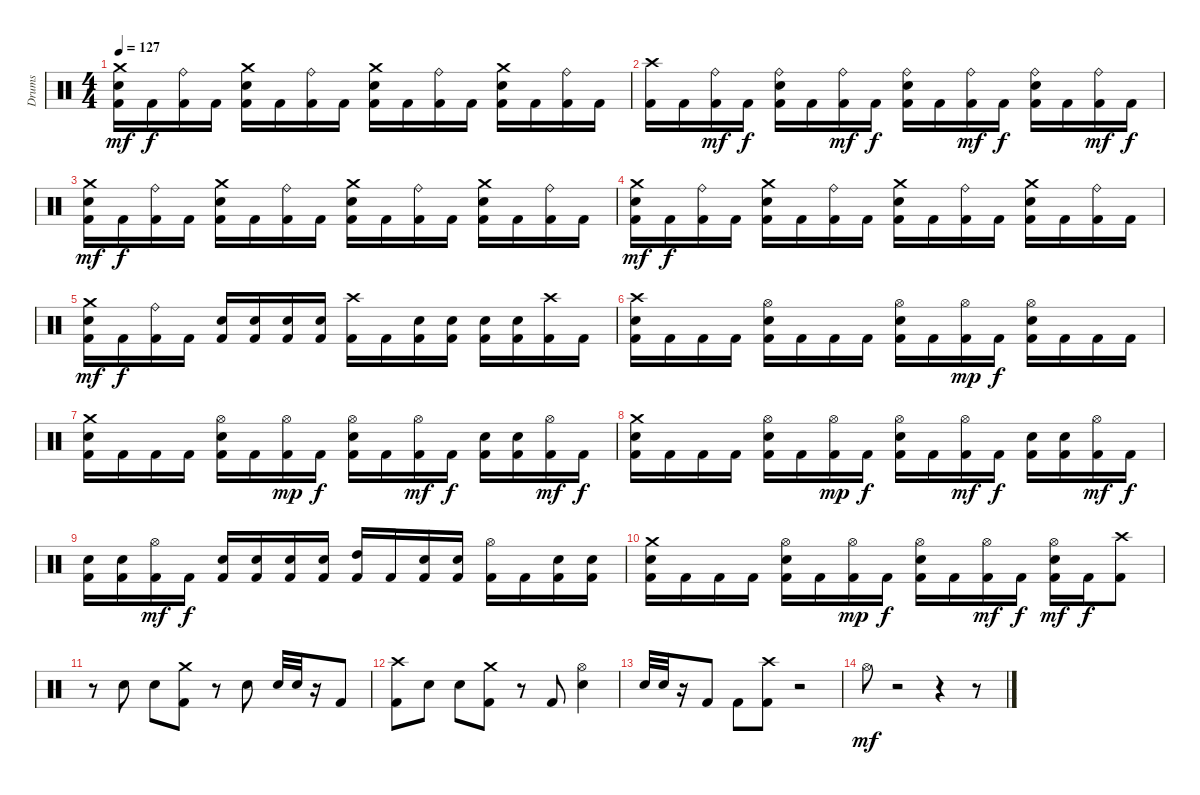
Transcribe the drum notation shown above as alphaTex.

\track ("Drums" "Drums") {instrument percussion}
\staff {score}
\articulation defaults
\ts (4 4)
\tempo 127
\clef neutral
\ks c
("Kick (hit) 2" "Electric Snare (hit)" "Crash medium (hit)").16{dy mf} "Kick (hit) 2".16{dy f} ("Kick (hit) 2" "Ride (bell)").16 "Kick (hit) 2".16 ("Kick (hit) 2" "Electric Snare (hit)" "Crash medium (hit)").16 "Kick (hit) 2".16 ("Kick (hit) 2" "Ride (bell)").16 "Kick (hit) 2".16 ("Kick (hit) 2" "Electric Snare (hit)" "Crash medium (hit)").16 "Kick (hit) 2".16 ("Kick (hit) 2" "Ride (bell)").16 "Kick (hit) 2".16 ("Kick (hit) 2" "Electric Snare (hit)" "Crash medium (hit)").16 "Kick (hit) 2".16 ("Kick (hit) 2" "Ride (bell)").16 "Kick (hit) 2".16 |
("Kick (hit) 2" "Crash high (hit)").16 "Kick (hit) 2".16 ("Kick (hit) 2" "Ride (bell)").16{dy mf} "Kick (hit) 2".16{dy f} ("Kick (hit) 2" "Electric Snare (hit)" "Ride (bell)").16 "Kick (hit) 2".16 ("Kick (hit) 2" "Ride (bell)").16{dy mf} "Kick (hit) 2".16{dy f} ("Kick (hit) 2" "Electric Snare (hit)" "Ride (bell)").16 "Kick (hit) 2".16 ("Kick (hit) 2" "Ride (bell)").16{dy mf} "Kick (hit) 2".16{dy f} ("Kick (hit) 2" "Electric Snare (hit)" "Ride (bell)").16 "Kick (hit) 2".16 ("Kick (hit) 2" "Ride (bell)").16{dy mf} "Kick (hit) 2".16{dy f} |
("Kick (hit) 2" "Electric Snare (hit)" "Crash medium (hit)").16{dy mf} "Kick (hit) 2".16{dy f} ("Kick (hit) 2" "Ride (bell)").16 "Kick (hit) 2".16 ("Kick (hit) 2" "Electric Snare (hit)" "Crash medium (hit)").16 "Kick (hit) 2".16 ("Kick (hit) 2" "Ride (bell)").16 "Kick (hit) 2".16 ("Kick (hit) 2" "Electric Snare (hit)" "Crash medium (hit)").16 "Kick (hit) 2".16 ("Kick (hit) 2" "Ride (bell)").16 "Kick (hit) 2".16 ("Kick (hit) 2" "Electric Snare (hit)" "Crash medium (hit)").16 "Kick (hit) 2".16 ("Kick (hit) 2" "Ride (bell)").16 "Kick (hit) 2".16 |
("Crash medium (hit)" "Electric Snare (hit)" "Kick (hit) 2").16{dy mf} "Kick (hit) 2".16{dy f} ("Kick (hit) 2" "Ride (bell)").16 "Kick (hit) 2".16 ("Kick (hit) 2" "Electric Snare (hit)" "Crash medium (hit)").16 "Kick (hit) 2".16 ("Kick (hit) 2" "Ride (bell)").16 "Kick (hit) 2".16 ("Kick (hit) 2" "Electric Snare (hit)" "Crash medium (hit)").16 "Kick (hit) 2".16 ("Kick (hit) 2" "Ride (bell)").16 "Kick (hit) 2".16 ("Kick (hit) 2" "Electric Snare (hit)" "Crash medium (hit)").16 "Kick (hit) 2".16 ("Kick (hit) 2" "Ride (bell)").16 "Kick (hit) 2".16 |
("Crash medium (hit)" "Electric Snare (hit)" "Kick (hit) 2").16{dy mf} "Kick (hit) 2".16{dy f} ("Kick (hit) 2" "Ride (bell)").16 "Kick (hit) 2".16 ("Kick (hit) 2" "Electric Snare (hit)").16 ("Kick (hit) 2" "Electric Snare (hit)").16 ("Kick (hit) 2" "Electric Snare (hit)").16 ("Kick (hit) 2" "Electric Snare (hit)").16 ("Kick (hit) 2" "Crash high (hit)").16 "Kick (hit) 2".16 ("Kick (hit) 2" "Electric Snare (hit)").16 ("Kick (hit) 2" "Electric Snare (hit)").16 ("Kick (hit) 2" "Electric Snare (hit)").16 ("Kick (hit) 2" "Electric Snare (hit)").16 ("Kick (hit) 2" "Crash high (hit)").16 "Kick (hit) 2".16 |
("Crash high (hit)" "Kick (hit) 2" "Electric Snare (hit)").16 "Kick (hit) 2".16 "Kick (hit) 2".16 "Kick (hit) 2".16 ("Kick (hit) 2" "Electric Snare (hit)" "Hi-Hat (open)").16 "Kick (hit) 2".16 "Kick (hit) 2".16 "Kick (hit) 2".16 ("Kick (hit) 2" "Electric Snare (hit)" "Hi-Hat (open)").16 "Kick (hit) 2".16 ("Kick (hit) 2" "Hi-Hat (open)").16{dy mp} "Kick (hit) 2".16{dy f} ("Kick (hit) 2" "Electric Snare (hit)" "Hi-Hat (open)").16 "Kick (hit) 2".16 "Kick (hit) 2".16 "Kick (hit) 2".16 |
("Kick (hit) 2" "Electric Snare (hit)" "Crash medium (hit)").16 "Kick (hit) 2".16 "Kick (hit) 2".16 "Kick (hit) 2".16 ("Kick (hit) 2" "Electric Snare (hit)" "Hi-Hat (open)").16 "Kick (hit) 2".16 ("Kick (hit) 2" "Hi-Hat (open)").16{dy mp} "Kick (hit) 2".16{dy f} ("Kick (hit) 2" "Electric Snare (hit)" "Hi-Hat (open)").16 "Kick (hit) 2".16 ("Kick (hit) 2" "Hi-Hat (open)").16{dy mf} "Kick (hit) 2".16{dy f} ("Kick (hit) 2" "Electric Snare (hit)").16 ("Kick (hit) 2" "Electric Snare (hit)").16 ("Kick (hit) 2" "Hi-Hat (open)").16{dy mf} "Kick (hit) 2".16{dy f} |
("Crash medium (hit)" "Electric Snare (hit)" "Kick (hit) 2").16 "Kick (hit) 2".16 "Kick (hit) 2".16 "Kick (hit) 2".16 ("Kick (hit) 2" "Electric Snare (hit)" "Hi-Hat (open)").16 "Kick (hit) 2".16 ("Kick (hit) 2" "Hi-Hat (open)").16{dy mp} "Kick (hit) 2".16{dy f} ("Kick (hit) 2" "Electric Snare (hit)" "Hi-Hat (open)").16 "Kick (hit) 2".16 ("Kick (hit) 2" "Hi-Hat (open)").16{dy mf} "Kick (hit) 2".16{dy f} ("Kick (hit) 2" "Electric Snare (hit)").16 ("Kick (hit) 2" "Electric Snare (hit)").16 ("Kick (hit) 2" "Hi-Hat (open)").16{dy mf} "Kick (hit) 2".16{dy f} |
("Electric Snare (hit)" "Kick (hit) 2").16 ("Kick (hit) 2" "Electric Snare (hit)").16 ("Kick (hit) 2" "Hi-Hat (open)").16{dy mf} "Kick (hit) 2".16{dy f} ("Kick (hit) 2" "Electric Snare (hit)").16 ("Kick (hit) 2" "Electric Snare (hit)").16 ("Kick (hit) 2" "Electric Snare (hit)").16 ("Kick (hit) 2" "Electric Snare (hit)").16 ("Kick (hit) 2" "High Tom (hit)").16 "Kick (hit) 2".16 ("Kick (hit) 2" "Electric Snare (hit)").16 ("Kick (hit) 2" "Electric Snare (hit)").16 ("Kick (hit) 2" "Hi-Hat (open)").16 "Kick (hit) 2".16 ("Kick (hit) 2" "Electric Snare (hit)").16 ("Kick (hit) 2" "Electric Snare (hit)").16 |
("Kick (hit) 2" "Electric Snare (hit)" "Crash medium (hit)").16 "Kick (hit) 2".16 "Kick (hit) 2".16 "Kick (hit) 2".16 ("Kick (hit) 2" "Electric Snare (hit)" "Hi-Hat (open)").16 "Kick (hit) 2".16 ("Kick (hit) 2" "Hi-Hat (open)").16{dy mp} "Kick (hit) 2".16{dy f} ("Kick (hit) 2" "Electric Snare (hit)" "Hi-Hat (open)").16 "Kick (hit) 2".16 ("Kick (hit) 2" "Hi-Hat (open)").16{dy mf} "Kick (hit) 2".16{dy f} ("Kick (hit) 2" "Electric Snare (hit)" "Hi-Hat (open)").16{dy mf} "Kick (hit) 2".16{dy f} ("Kick (hit) 2" "Crash high (hit)").8 |
r.8 "Electric Snare (hit)".8 "Electric Snare (hit)".8 ("Kick (hit) 2" "Crash medium (hit)").8 r.8 "Electric Snare (hit)".8 "Electric Snare (hit)".32 "Electric Snare (hit)".32 r.16 "Kick (hit) 2".8 |
("Crash high (hit)" "Kick (hit) 2").8 "Electric Snare (hit)".8 "Electric Snare (hit)".8 ("Kick (hit) 2" "Crash medium (hit)").8 r.8 "Kick (hit) 2".8 ("Electric Snare (hit)" "Hi-Hat (open)").4 |
"Electric Snare (hit)".32 "Electric Snare (hit)".32 r.16 "Kick (hit) 2".8 "Kick (hit) 2".8 ("Kick (hit) 2" "Crash high (hit)").8 r.2 |
"Hi-Hat (open)".8{dy mf} r.2 r.4 r.8
